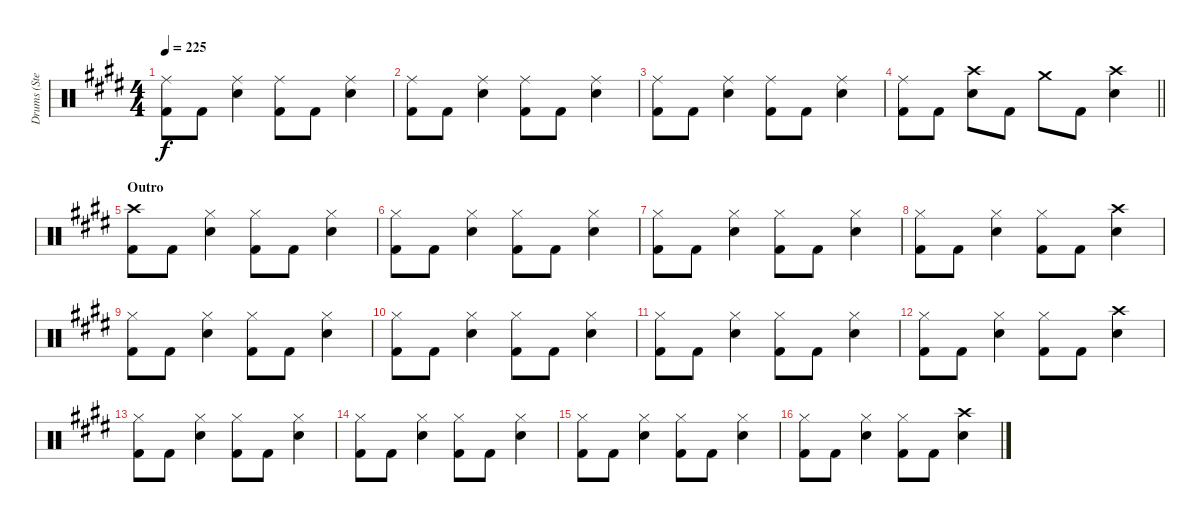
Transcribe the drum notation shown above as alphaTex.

\track ("Drums (Steven)" "Drums (Ste") {instrument percussion}
\staff {score}
\articulation defaults
\ts (4 4)
\tempo 225
\clef neutral
\ks e
("Ride (middle)" "Kick (hit) 2").8{dy f} "Kick (hit) 2".8 ("Ride (middle)" "Snare (hit) 2").4 ("Ride (middle)" "Kick (hit) 2").8 "Kick (hit) 2".8 ("Ride (middle)" "Snare (hit) 2").4 |
("Ride (middle)" "Kick (hit) 2").8 "Kick (hit) 2".8 ("Ride (middle)" "Snare (hit) 2").4 ("Ride (middle)" "Kick (hit) 2").8 "Kick (hit) 2".8 ("Ride (middle)" "Snare (hit) 2").4 |
("Ride (middle)" "Kick (hit) 2").8 "Kick (hit) 2".8 ("Ride (middle)" "Snare (hit) 2").4 ("Ride (middle)" "Kick (hit) 2").8 "Kick (hit) 2".8 ("Ride (middle)" "Snare (hit) 2").4 |
\barLineRight lightlight
("Ride (middle)" "Kick (hit) 2").8 "Kick (hit) 2".8 ("Crash high (hit)" "Snare (hit) 2").8 "Kick (hit) 2".8 "Crash medium (hit)".8 "Kick (hit) 2".8 ("Crash high (hit)" "Snare (hit) 2").4 |
\section ("" "Outro")
("Crash high (hit)" "Kick (hit) 2").8 "Kick (hit) 2".8 ("Hi-Hat (closed)" "Snare (hit) 2").4 ("Hi-Hat (closed)" "Kick (hit) 2").8 "Kick (hit) 2".8 ("Hi-Hat (closed)" "Snare (hit) 2").4 |
("Hi-Hat (closed)" "Kick (hit) 2").8 "Kick (hit) 2".8 ("Hi-Hat (closed)" "Snare (hit) 2").4 ("Hi-Hat (closed)" "Kick (hit) 2").8 "Kick (hit) 2".8 ("Hi-Hat (closed)" "Snare (hit) 2").4 |
("Hi-Hat (closed)" "Kick (hit) 2").8 "Kick (hit) 2".8 ("Hi-Hat (closed)" "Snare (hit) 2").4 ("Hi-Hat (closed)" "Kick (hit) 2").8 "Kick (hit) 2".8 ("Hi-Hat (closed)" "Snare (hit) 2").4 |
("Hi-Hat (closed)" "Kick (hit) 2").8 "Kick (hit) 2".8 ("Hi-Hat (closed)" "Snare (hit) 2").4 ("Hi-Hat (closed)" "Kick (hit) 2").8 "Kick (hit) 2".8 ("Crash high (hit)" "Snare (hit) 2").4 |
("Hi-Hat (closed)" "Kick (hit) 2").8 "Kick (hit) 2".8 ("Hi-Hat (closed)" "Snare (hit) 2").4 ("Hi-Hat (closed)" "Kick (hit) 2").8 "Kick (hit) 2".8 ("Hi-Hat (closed)" "Snare (hit) 2").4 |
("Hi-Hat (closed)" "Kick (hit) 2").8 "Kick (hit) 2".8 ("Hi-Hat (closed)" "Snare (hit) 2").4 ("Hi-Hat (closed)" "Kick (hit) 2").8 "Kick (hit) 2".8 ("Hi-Hat (closed)" "Snare (hit) 2").4 |
("Hi-Hat (closed)" "Kick (hit) 2").8 "Kick (hit) 2".8 ("Hi-Hat (closed)" "Snare (hit) 2").4 ("Hi-Hat (closed)" "Kick (hit) 2").8 "Kick (hit) 2".8 ("Hi-Hat (closed)" "Snare (hit) 2").4 |
("Hi-Hat (closed)" "Kick (hit) 2").8 "Kick (hit) 2".8 ("Hi-Hat (closed)" "Snare (hit) 2").4 ("Hi-Hat (closed)" "Kick (hit) 2").8 "Kick (hit) 2".8 ("Crash high (hit)" "Snare (hit) 2").4 |
("Hi-Hat (closed)" "Kick (hit) 2").8 "Kick (hit) 2".8 ("Hi-Hat (closed)" "Snare (hit) 2").4 ("Hi-Hat (closed)" "Kick (hit) 2").8 "Kick (hit) 2".8 ("Hi-Hat (closed)" "Snare (hit) 2").4 |
("Hi-Hat (closed)" "Kick (hit) 2").8 "Kick (hit) 2".8 ("Hi-Hat (closed)" "Snare (hit) 2").4 ("Hi-Hat (closed)" "Kick (hit) 2").8 "Kick (hit) 2".8 ("Hi-Hat (closed)" "Snare (hit) 2").4 |
("Hi-Hat (closed)" "Kick (hit) 2").8 "Kick (hit) 2".8 ("Hi-Hat (closed)" "Snare (hit) 2").4 ("Hi-Hat (closed)" "Kick (hit) 2").8 "Kick (hit) 2".8 ("Hi-Hat (closed)" "Snare (hit) 2").4 |
("Hi-Hat (closed)" "Kick (hit) 2").8 "Kick (hit) 2".8 ("Hi-Hat (closed)" "Snare (hit) 2").4 ("Hi-Hat (closed)" "Kick (hit) 2").8 "Kick (hit) 2".8 ("Crash high (hit)" "Snare (hit) 2").4
